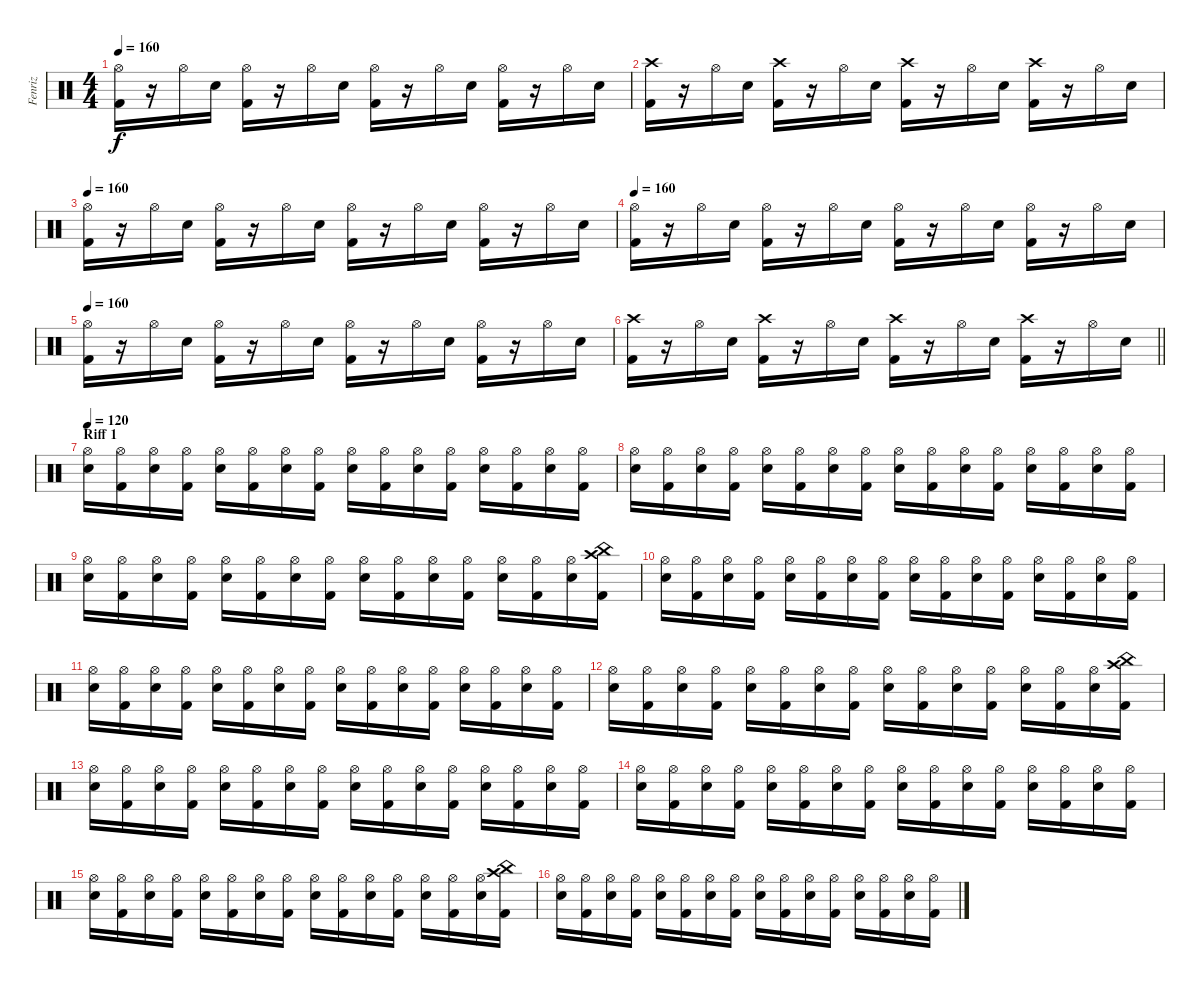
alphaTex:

\track ("Fenriz" "Fenriz") {instrument percussion}
\staff {score}
\articulation defaults
\ts (4 4)
\tempo 160
\clef neutral
\ks c
("Hi-Hat (open)" "Kick (hit) 2").16{dy f} r.16 "Hi-Hat (open)".16 "Electric Snare (hit)".16 ("Hi-Hat (open)" "Kick (hit) 2").16 r.16 "Hi-Hat (open)".16 "Electric Snare (hit)".16 ("Hi-Hat (open)" "Kick (hit) 2").16 r.16 "Hi-Hat (open)".16 "Electric Snare (hit)".16 ("Hi-Hat (open)" "Kick (hit) 2").16 r.16 "Hi-Hat (open)".16 "Electric Snare (hit)".16 |
("Crash high (hit)" "Kick (hit) 2").16 r.16 "Hi-Hat (open)".16 "Electric Snare (hit)".16 ("Crash high (hit)" "Kick (hit) 2").16 r.16 "Hi-Hat (open)".16 "Electric Snare (hit)".16 ("Crash high (hit)" "Kick (hit) 2").16 r.16 "Hi-Hat (open)".16 "Electric Snare (hit)".16 ("Crash high (hit)" "Kick (hit) 2").16 r.16 "Hi-Hat (open)".16 "Electric Snare (hit)".16 |
\tempo 160
("Hi-Hat (open)" "Kick (hit) 2").16 r.16 "Hi-Hat (open)".16 "Electric Snare (hit)".16 ("Hi-Hat (open)" "Kick (hit) 2").16 r.16 "Hi-Hat (open)".16 "Electric Snare (hit)".16 ("Hi-Hat (open)" "Kick (hit) 2").16 r.16 "Hi-Hat (open)".16 "Electric Snare (hit)".16 ("Hi-Hat (open)" "Kick (hit) 2").16 r.16 "Hi-Hat (open)".16 "Electric Snare (hit)".16 |
\tempo 160
("Hi-Hat (open)" "Kick (hit) 2").16 r.16 "Hi-Hat (open)".16 "Electric Snare (hit)".16 ("Hi-Hat (open)" "Kick (hit) 2").16 r.16 "Hi-Hat (open)".16 "Electric Snare (hit)".16 ("Hi-Hat (open)" "Kick (hit) 2").16 r.16 "Hi-Hat (open)".16 "Electric Snare (hit)".16 ("Hi-Hat (open)" "Kick (hit) 2").16 r.16 "Hi-Hat (open)".16 "Electric Snare (hit)".16 |
\tempo 160
("Hi-Hat (open)" "Kick (hit) 2").16 r.16 "Hi-Hat (open)".16 "Electric Snare (hit)".16 ("Hi-Hat (open)" "Kick (hit) 2").16 r.16 "Hi-Hat (open)".16 "Electric Snare (hit)".16 ("Hi-Hat (open)" "Kick (hit) 2").16 r.16 "Hi-Hat (open)".16 "Electric Snare (hit)".16 ("Hi-Hat (open)" "Kick (hit) 2").16 r.16 "Hi-Hat (open)".16 "Electric Snare (hit)".16 |
\barLineRight lightlight
("Crash high (hit)" "Kick (hit) 2").16 r.16 "Hi-Hat (open)".16 "Electric Snare (hit)".16 ("Crash high (hit)" "Kick (hit) 2").16 r.16 "Hi-Hat (open)".16 "Electric Snare (hit)".16 ("Crash high (hit)" "Kick (hit) 2").16 r.16 "Hi-Hat (open)".16 "Electric Snare (hit)".16 ("Crash high (hit)" "Kick (hit) 2").16 r.16 "Hi-Hat (open)".16 "Electric Snare (hit)".16 |
\section ("" "Riff 1")
\tempo 120
("Hi-Hat (open)" "Electric Snare (hit)").16 ("Hi-Hat (open)" "Kick (hit) 2").16 ("Hi-Hat (open)" "Electric Snare (hit)").16 ("Hi-Hat (open)" "Kick (hit) 2").16 ("Hi-Hat (open)" "Electric Snare (hit)").16 ("Hi-Hat (open)" "Kick (hit) 2").16 ("Hi-Hat (open)" "Electric Snare (hit)").16 ("Hi-Hat (open)" "Kick (hit) 2").16 ("Hi-Hat (open)" "Electric Snare (hit)").16 ("Hi-Hat (open)" "Kick (hit) 2").16 ("Hi-Hat (open)" "Electric Snare (hit)").16 ("Hi-Hat (open)" "Kick (hit) 2").16 ("Hi-Hat (open)" "Electric Snare (hit)").16 ("Hi-Hat (open)" "Kick (hit) 2").16 ("Hi-Hat (open)" "Electric Snare (hit)").16 ("Hi-Hat (open)" "Kick (hit) 2").16 |
("Hi-Hat (open)" "Electric Snare (hit)").16 ("Hi-Hat (open)" "Kick (hit) 2").16 ("Hi-Hat (open)" "Electric Snare (hit)").16 ("Hi-Hat (open)" "Kick (hit) 2").16 ("Hi-Hat (open)" "Electric Snare (hit)").16 ("Hi-Hat (open)" "Kick (hit) 2").16 ("Hi-Hat (open)" "Electric Snare (hit)").16 ("Hi-Hat (open)" "Kick (hit) 2").16 ("Hi-Hat (open)" "Electric Snare (hit)").16 ("Hi-Hat (open)" "Kick (hit) 2").16 ("Hi-Hat (open)" "Electric Snare (hit)").16 ("Hi-Hat (open)" "Kick (hit) 2").16 ("Hi-Hat (open)" "Electric Snare (hit)").16 ("Hi-Hat (open)" "Kick (hit) 2").16 ("Hi-Hat (open)" "Electric Snare (hit)").16 ("Hi-Hat (open)" "Kick (hit) 2").16 |
("Hi-Hat (open)" "Electric Snare (hit)").16 ("Hi-Hat (open)" "Kick (hit) 2").16 ("Hi-Hat (open)" "Electric Snare (hit)").16 ("Hi-Hat (open)" "Kick (hit) 2").16 ("Hi-Hat (open)" "Electric Snare (hit)").16 ("Hi-Hat (open)" "Kick (hit) 2").16 ("Hi-Hat (open)" "Electric Snare (hit)").16 ("Hi-Hat (open)" "Kick (hit) 2").16 ("Hi-Hat (open)" "Electric Snare (hit)").16 ("Hi-Hat (open)" "Kick (hit) 2").16 ("Hi-Hat (open)" "Electric Snare (hit)").16 ("Hi-Hat (open)" "Kick (hit) 2").16 ("Hi-Hat (open)" "Electric Snare (hit)").16 ("Hi-Hat (open)" "Kick (hit) 2").16 ("Hi-Hat (open)" "Electric Snare (hit)").16 ("China (hit)" "Crash high (hit)" "Kick (hit) 2").16 |
("Hi-Hat (open)" "Electric Snare (hit)").16 ("Hi-Hat (open)" "Kick (hit) 2").16 ("Hi-Hat (open)" "Electric Snare (hit)").16 ("Hi-Hat (open)" "Kick (hit) 2").16 ("Hi-Hat (open)" "Electric Snare (hit)").16 ("Hi-Hat (open)" "Kick (hit) 2").16 ("Hi-Hat (open)" "Electric Snare (hit)").16 ("Hi-Hat (open)" "Kick (hit) 2").16 ("Hi-Hat (open)" "Electric Snare (hit)").16 ("Hi-Hat (open)" "Kick (hit) 2").16 ("Hi-Hat (open)" "Electric Snare (hit)").16 ("Hi-Hat (open)" "Kick (hit) 2").16 ("Hi-Hat (open)" "Electric Snare (hit)").16 ("Hi-Hat (open)" "Kick (hit) 2").16 ("Hi-Hat (open)" "Electric Snare (hit)").16 ("Hi-Hat (open)" "Kick (hit) 2").16 |
("Hi-Hat (open)" "Electric Snare (hit)").16 ("Hi-Hat (open)" "Kick (hit) 2").16 ("Hi-Hat (open)" "Electric Snare (hit)").16 ("Hi-Hat (open)" "Kick (hit) 2").16 ("Hi-Hat (open)" "Electric Snare (hit)").16 ("Hi-Hat (open)" "Kick (hit) 2").16 ("Hi-Hat (open)" "Electric Snare (hit)").16 ("Hi-Hat (open)" "Kick (hit) 2").16 ("Hi-Hat (open)" "Electric Snare (hit)").16 ("Hi-Hat (open)" "Kick (hit) 2").16 ("Hi-Hat (open)" "Electric Snare (hit)").16 ("Hi-Hat (open)" "Kick (hit) 2").16 ("Hi-Hat (open)" "Electric Snare (hit)").16 ("Hi-Hat (open)" "Kick (hit) 2").16 ("Hi-Hat (open)" "Electric Snare (hit)").16 ("Hi-Hat (open)" "Kick (hit) 2").16 |
("Hi-Hat (open)" "Electric Snare (hit)").16 ("Hi-Hat (open)" "Kick (hit) 2").16 ("Hi-Hat (open)" "Electric Snare (hit)").16 ("Hi-Hat (open)" "Kick (hit) 2").16 ("Hi-Hat (open)" "Electric Snare (hit)").16 ("Hi-Hat (open)" "Kick (hit) 2").16 ("Hi-Hat (open)" "Electric Snare (hit)").16 ("Hi-Hat (open)" "Kick (hit) 2").16 ("Hi-Hat (open)" "Electric Snare (hit)").16 ("Hi-Hat (open)" "Kick (hit) 2").16 ("Hi-Hat (open)" "Electric Snare (hit)").16 ("Hi-Hat (open)" "Kick (hit) 2").16 ("Hi-Hat (open)" "Electric Snare (hit)").16 ("Hi-Hat (open)" "Kick (hit) 2").16 ("Hi-Hat (open)" "Electric Snare (hit)").16 ("China (hit)" "Crash high (hit)" "Kick (hit) 2").16 |
("Hi-Hat (open)" "Electric Snare (hit)").16 ("Hi-Hat (open)" "Kick (hit) 2").16 ("Hi-Hat (open)" "Electric Snare (hit)").16 ("Hi-Hat (open)" "Kick (hit) 2").16 ("Hi-Hat (open)" "Electric Snare (hit)").16 ("Hi-Hat (open)" "Kick (hit) 2").16 ("Hi-Hat (open)" "Electric Snare (hit)").16 ("Hi-Hat (open)" "Kick (hit) 2").16 ("Hi-Hat (open)" "Electric Snare (hit)").16 ("Hi-Hat (open)" "Kick (hit) 2").16 ("Hi-Hat (open)" "Electric Snare (hit)").16 ("Hi-Hat (open)" "Kick (hit) 2").16 ("Hi-Hat (open)" "Electric Snare (hit)").16 ("Hi-Hat (open)" "Kick (hit) 2").16 ("Hi-Hat (open)" "Electric Snare (hit)").16 ("Hi-Hat (open)" "Kick (hit) 2").16 |
("Hi-Hat (open)" "Electric Snare (hit)").16 ("Hi-Hat (open)" "Kick (hit) 2").16 ("Hi-Hat (open)" "Electric Snare (hit)").16 ("Hi-Hat (open)" "Kick (hit) 2").16 ("Hi-Hat (open)" "Electric Snare (hit)").16 ("Hi-Hat (open)" "Kick (hit) 2").16 ("Hi-Hat (open)" "Electric Snare (hit)").16 ("Hi-Hat (open)" "Kick (hit) 2").16 ("Hi-Hat (open)" "Electric Snare (hit)").16 ("Hi-Hat (open)" "Kick (hit) 2").16 ("Hi-Hat (open)" "Electric Snare (hit)").16 ("Hi-Hat (open)" "Kick (hit) 2").16 ("Hi-Hat (open)" "Electric Snare (hit)").16 ("Hi-Hat (open)" "Kick (hit) 2").16 ("Hi-Hat (open)" "Electric Snare (hit)").16 ("Hi-Hat (open)" "Kick (hit) 2").16 |
("Hi-Hat (open)" "Electric Snare (hit)").16 ("Hi-Hat (open)" "Kick (hit) 2").16 ("Hi-Hat (open)" "Electric Snare (hit)").16 ("Hi-Hat (open)" "Kick (hit) 2").16 ("Hi-Hat (open)" "Electric Snare (hit)").16 ("Hi-Hat (open)" "Kick (hit) 2").16 ("Hi-Hat (open)" "Electric Snare (hit)").16 ("Hi-Hat (open)" "Kick (hit) 2").16 ("Hi-Hat (open)" "Electric Snare (hit)").16 ("Hi-Hat (open)" "Kick (hit) 2").16 ("Hi-Hat (open)" "Electric Snare (hit)").16 ("Hi-Hat (open)" "Kick (hit) 2").16 ("Hi-Hat (open)" "Electric Snare (hit)").16 ("Hi-Hat (open)" "Kick (hit) 2").16 ("Hi-Hat (open)" "Electric Snare (hit)").16 ("China (hit)" "Crash high (hit)" "Kick (hit) 2").16 |
("Hi-Hat (open)" "Electric Snare (hit)").16 ("Hi-Hat (open)" "Kick (hit) 2").16 ("Hi-Hat (open)" "Electric Snare (hit)").16 ("Hi-Hat (open)" "Kick (hit) 2").16 ("Hi-Hat (open)" "Electric Snare (hit)").16 ("Hi-Hat (open)" "Kick (hit) 2").16 ("Hi-Hat (open)" "Electric Snare (hit)").16 ("Hi-Hat (open)" "Kick (hit) 2").16 ("Hi-Hat (open)" "Electric Snare (hit)").16 ("Hi-Hat (open)" "Kick (hit) 2").16 ("Hi-Hat (open)" "Electric Snare (hit)").16 ("Hi-Hat (open)" "Kick (hit) 2").16 ("Hi-Hat (open)" "Electric Snare (hit)").16 ("Hi-Hat (open)" "Kick (hit) 2").16 ("Hi-Hat (open)" "Electric Snare (hit)").16 ("Hi-Hat (open)" "Kick (hit) 2").16
